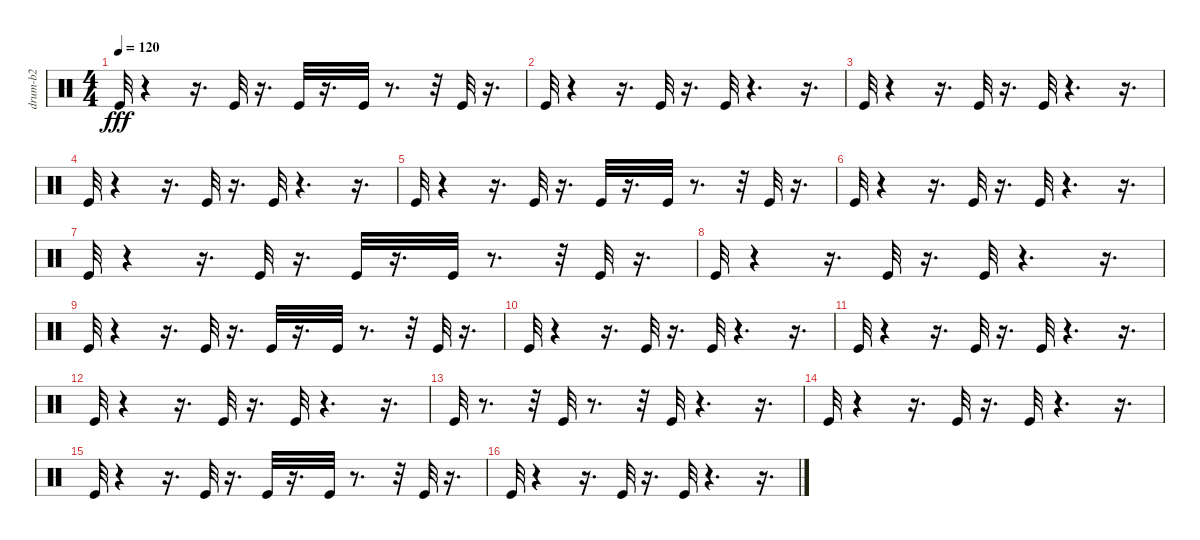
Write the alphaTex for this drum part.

\track ("drum-b2" "drum-b2") {instrument percussion}
\staff {score}
\articulation defaults
\ts (4 4)
\tempo 120
\clef neutral
\ks c "Kick (hit)".32{dy fff}
r.4 r.16{d} "Kick (hit)".32 r.16{d} "Kick (hit)".32 r.16{d} "Kick (hit)".32 r.8{d} r.32 "Kick (hit)".32 r.16{d} |
"Kick (hit)".32 r.4 r.16{d} "Kick (hit)".32 r.16{d} "Kick (hit)".32 r.4{d} r.16{d} |
"Kick (hit)".32 r.4 r.16{d} "Kick (hit)".32 r.16{d} "Kick (hit)".32 r.4{d} r.16{d} |
"Kick (hit)".32 r.4 r.16{d} "Kick (hit)".32 r.16{d} "Kick (hit)".32 r.4{d} r.16{d} |
"Kick (hit)".32 r.4 r.16{d} "Kick (hit)".32 r.16{d} "Kick (hit)".32 r.16{d} "Kick (hit)".32 r.8{d} r.32 "Kick (hit)".32 r.16{d} |
"Kick (hit)".32 r.4 r.16{d} "Kick (hit)".32 r.16{d} "Kick (hit)".32 r.4{d} r.16{d} |
"Kick (hit)".32 r.4 r.16{d} "Kick (hit)".32 r.16{d} "Kick (hit)".32 r.16{d} "Kick (hit)".32 r.8{d} r.32 "Kick (hit)".32 r.16{d} |
"Kick (hit)".32 r.4 r.16{d} "Kick (hit)".32 r.16{d} "Kick (hit)".32 r.4{d} r.16{d} |
"Kick (hit)".32 r.4 r.16{d} "Kick (hit)".32 r.16{d} "Kick (hit)".32 r.16{d} "Kick (hit)".32 r.8{d} r.32 "Kick (hit)".32 r.16{d} |
"Kick (hit)".32 r.4 r.16{d} "Kick (hit)".32 r.16{d} "Kick (hit)".32 r.4{d} r.16{d} |
"Kick (hit)".32 r.4 r.16{d} "Kick (hit)".32 r.16{d} "Kick (hit)".32 r.4{d} r.16{d} |
"Kick (hit)".32 r.4 r.16{d} "Kick (hit)".32 r.16{d} "Kick (hit)".32 r.4{d} r.16{d} |
"Kick (hit)".32 r.8{d} r.32 "Kick (hit)".32 r.8{d} r.32 "Kick (hit)".32 r.4{d} r.16{d} |
"Kick (hit)".32 r.4 r.16{d} "Kick (hit)".32 r.16{d} "Kick (hit)".32 r.4{d} r.16{d} |
"Kick (hit)".32 r.4 r.16{d} "Kick (hit)".32 r.16{d} "Kick (hit)".32 r.16{d} "Kick (hit)".32 r.8{d} r.32 "Kick (hit)".32 r.16{d} |
"Kick (hit)".32 r.4 r.16{d} "Kick (hit)".32 r.16{d} "Kick (hit)".32 r.4{d} r.16{d}
